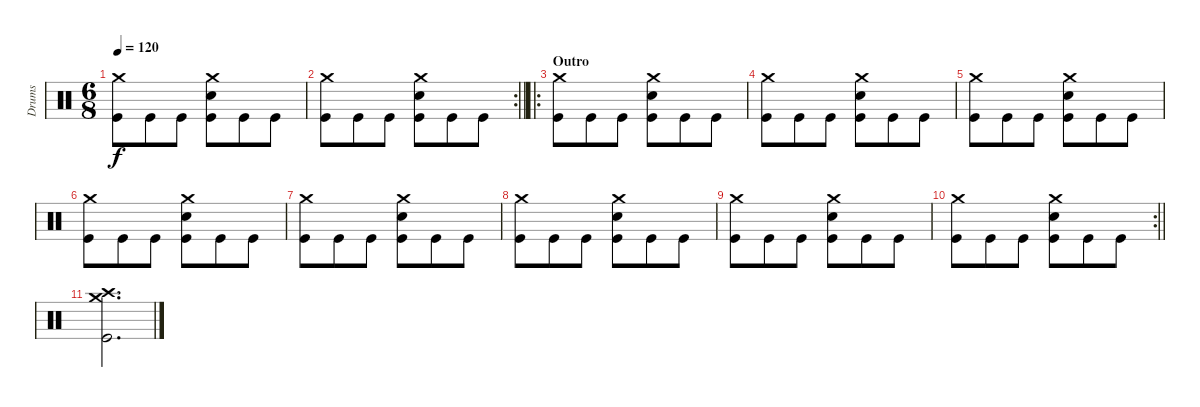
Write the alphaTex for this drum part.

\track ("Drums" "Drums") {instrument percussion}
\staff {score}
\articulation defaults
\ts (6 8)
\tempo 120
\clef neutral
\ks c
("Crash medium (hit)" "Kick (hit)").8{dy f} "Kick (hit)".8 "Kick (hit)".8 ("Crash medium (hit)" "Snare (hit) 2" "Kick (hit)").8 "Kick (hit)".8 "Kick (hit)".8 |
\rc 2
\barLineRight lightlight
("Crash medium (hit)" "Kick (hit)").8 "Kick (hit)".8 "Kick (hit)".8 ("Crash medium (hit)" "Snare (hit) 2" "Kick (hit)").8 "Kick (hit)".8 "Kick (hit)".8 |
\ro
\section ("" "Outro")
("Crash medium (hit)" "Kick (hit)").8 "Kick (hit)".8 "Kick (hit)".8 ("Crash medium (hit)" "Snare (hit) 2" "Kick (hit)").8 "Kick (hit)".8 "Kick (hit)".8 |
("Crash medium (hit)" "Kick (hit)").8 "Kick (hit)".8 "Kick (hit)".8 ("Crash medium (hit)" "Snare (hit) 2" "Kick (hit)").8 "Kick (hit)".8 "Kick (hit)".8 |
("Crash medium (hit)" "Kick (hit)").8 "Kick (hit)".8 "Kick (hit)".8 ("Crash medium (hit)" "Snare (hit) 2" "Kick (hit)").8 "Kick (hit)".8 "Kick (hit)".8 |
("Crash medium (hit)" "Kick (hit)").8 "Kick (hit)".8 "Kick (hit)".8 ("Crash medium (hit)" "Snare (hit) 2" "Kick (hit)").8 "Kick (hit)".8 "Kick (hit)".8 |
("Crash medium (hit)" "Kick (hit)").8 "Kick (hit)".8 "Kick (hit)".8 ("Crash medium (hit)" "Snare (hit) 2" "Kick (hit)").8 "Kick (hit)".8 "Kick (hit)".8 |
("Crash medium (hit)" "Kick (hit)").8 "Kick (hit)".8 "Kick (hit)".8 ("Crash medium (hit)" "Snare (hit) 2" "Kick (hit)").8 "Kick (hit)".8 "Kick (hit)".8 |
("Crash medium (hit)" "Kick (hit)").8 "Kick (hit)".8 "Kick (hit)".8 ("Crash medium (hit)" "Snare (hit) 2" "Kick (hit)").8 "Kick (hit)".8 "Kick (hit)".8 |
\rc 2
\barLineRight lightlight
("Crash medium (hit)" "Kick (hit)").8 "Kick (hit)".8 "Kick (hit)".8 ("Crash medium (hit)" "Snare (hit) 2" "Kick (hit)").8 "Kick (hit)".8 "Kick (hit)".8 |
("Crash medium (hit)" "Crash high (hit)" "Kick (hit)").2{d}
